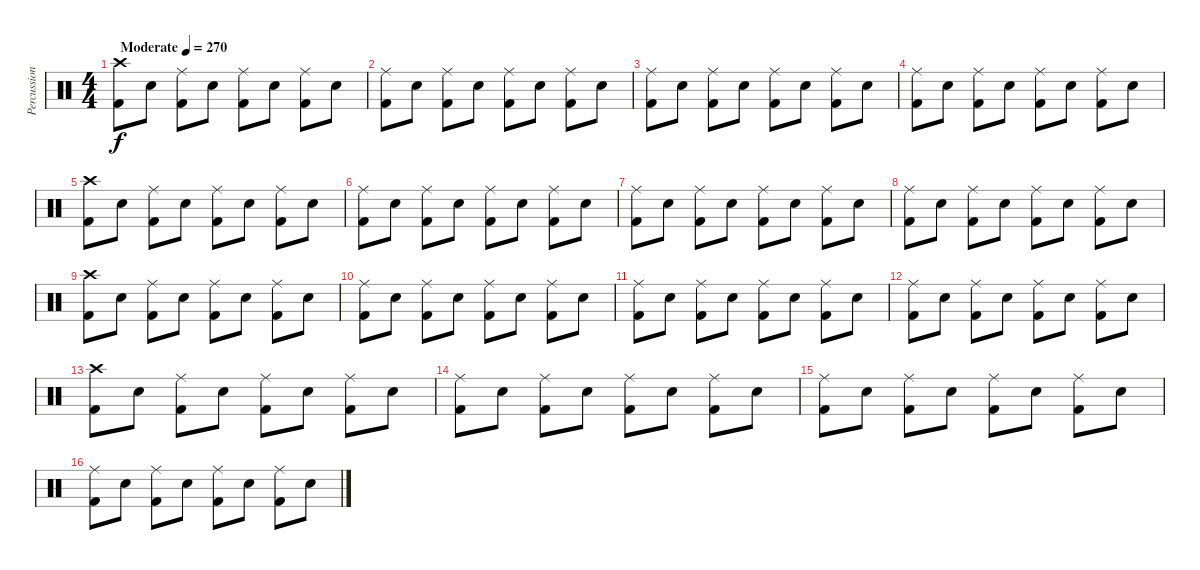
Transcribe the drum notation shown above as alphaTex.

\track ("Percussion" "Percussion") {instrument percussion}
\staff {score}
\articulation defaults
\ts (4 4)
\tempo (270 "Moderate")
\clef neutral
\ks c
("Crash high (hit)" "Kick (hit) 2").8{dy f} "Snare (hit) 2".8 ("Ride (middle)" "Kick (hit) 2").8 "Snare (hit) 2".8 ("Ride (middle)" "Kick (hit) 2").8 "Snare (hit) 2".8 ("Ride (middle)" "Kick (hit) 2").8 "Snare (hit) 2".8 |
("Ride (middle)" "Kick (hit) 2").8 "Snare (hit) 2".8 ("Ride (middle)" "Kick (hit) 2").8 "Snare (hit) 2".8 ("Ride (middle)" "Kick (hit) 2").8 "Snare (hit) 2".8 ("Ride (middle)" "Kick (hit) 2").8 "Snare (hit) 2".8 |
("Ride (middle)" "Kick (hit) 2").8 "Snare (hit) 2".8 ("Ride (middle)" "Kick (hit) 2").8 "Snare (hit) 2".8 ("Ride (middle)" "Kick (hit) 2").8 "Snare (hit) 2".8 ("Ride (middle)" "Kick (hit) 2").8 "Snare (hit) 2".8 |
("Ride (middle)" "Kick (hit) 2").8 "Snare (hit) 2".8 ("Ride (middle)" "Kick (hit) 2").8 "Snare (hit) 2".8 ("Ride (middle)" "Kick (hit) 2").8 "Snare (hit) 2".8 ("Ride (middle)" "Kick (hit) 2").8 "Snare (hit) 2".8 |
("Crash high (hit)" "Kick (hit) 2").8 "Snare (hit) 2".8 ("Ride (middle)" "Kick (hit) 2").8 "Snare (hit) 2".8 ("Ride (middle)" "Kick (hit) 2").8 "Snare (hit) 2".8 ("Ride (middle)" "Kick (hit) 2").8 "Snare (hit) 2".8 |
("Ride (middle)" "Kick (hit) 2").8 "Snare (hit) 2".8 ("Ride (middle)" "Kick (hit) 2").8 "Snare (hit) 2".8 ("Ride (middle)" "Kick (hit) 2").8 "Snare (hit) 2".8 ("Ride (middle)" "Kick (hit) 2").8 "Snare (hit) 2".8 |
("Ride (middle)" "Kick (hit) 2").8 "Snare (hit) 2".8 ("Ride (middle)" "Kick (hit) 2").8 "Snare (hit) 2".8 ("Ride (middle)" "Kick (hit) 2").8 "Snare (hit) 2".8 ("Ride (middle)" "Kick (hit) 2").8 "Snare (hit) 2".8 |
("Ride (middle)" "Kick (hit) 2").8 "Snare (hit) 2".8 ("Ride (middle)" "Kick (hit) 2").8 "Snare (hit) 2".8 ("Ride (middle)" "Kick (hit) 2").8 "Snare (hit) 2".8 ("Ride (middle)" "Kick (hit) 2").8 "Snare (hit) 2".8 |
("Crash high (hit)" "Kick (hit) 2").8 "Snare (hit) 2".8 ("Ride (middle)" "Kick (hit) 2").8 "Snare (hit) 2".8 ("Ride (middle)" "Kick (hit) 2").8 "Snare (hit) 2".8 ("Ride (middle)" "Kick (hit) 2").8 "Snare (hit) 2".8 |
("Ride (middle)" "Kick (hit) 2").8 "Snare (hit) 2".8 ("Ride (middle)" "Kick (hit) 2").8 "Snare (hit) 2".8 ("Ride (middle)" "Kick (hit) 2").8 "Snare (hit) 2".8 ("Ride (middle)" "Kick (hit) 2").8 "Snare (hit) 2".8 |
("Ride (middle)" "Kick (hit) 2").8 "Snare (hit) 2".8 ("Ride (middle)" "Kick (hit) 2").8 "Snare (hit) 2".8 ("Ride (middle)" "Kick (hit) 2").8 "Snare (hit) 2".8 ("Ride (middle)" "Kick (hit) 2").8 "Snare (hit) 2".8 |
("Ride (middle)" "Kick (hit) 2").8 "Snare (hit) 2".8 ("Ride (middle)" "Kick (hit) 2").8 "Snare (hit) 2".8 ("Ride (middle)" "Kick (hit) 2").8 "Snare (hit) 2".8 ("Ride (middle)" "Kick (hit) 2").8 "Snare (hit) 2".8 |
("Crash high (hit)" "Kick (hit) 2").8 "Snare (hit) 2".8 ("Ride (middle)" "Kick (hit) 2").8 "Snare (hit) 2".8 ("Ride (middle)" "Kick (hit) 2").8 "Snare (hit) 2".8 ("Ride (middle)" "Kick (hit) 2").8 "Snare (hit) 2".8 |
("Ride (middle)" "Kick (hit) 2").8 "Snare (hit) 2".8 ("Ride (middle)" "Kick (hit) 2").8 "Snare (hit) 2".8 ("Ride (middle)" "Kick (hit) 2").8 "Snare (hit) 2".8 ("Ride (middle)" "Kick (hit) 2").8 "Snare (hit) 2".8 |
("Ride (middle)" "Kick (hit) 2").8 "Snare (hit) 2".8 ("Ride (middle)" "Kick (hit) 2").8 "Snare (hit) 2".8 ("Ride (middle)" "Kick (hit) 2").8 "Snare (hit) 2".8 ("Ride (middle)" "Kick (hit) 2").8 "Snare (hit) 2".8 |
("Ride (middle)" "Kick (hit) 2").8 "Snare (hit) 2".8 ("Ride (middle)" "Kick (hit) 2").8 "Snare (hit) 2".8 ("Ride (middle)" "Kick (hit) 2").8 "Snare (hit) 2".8 ("Ride (middle)" "Kick (hit) 2").8 "Snare (hit) 2".8
